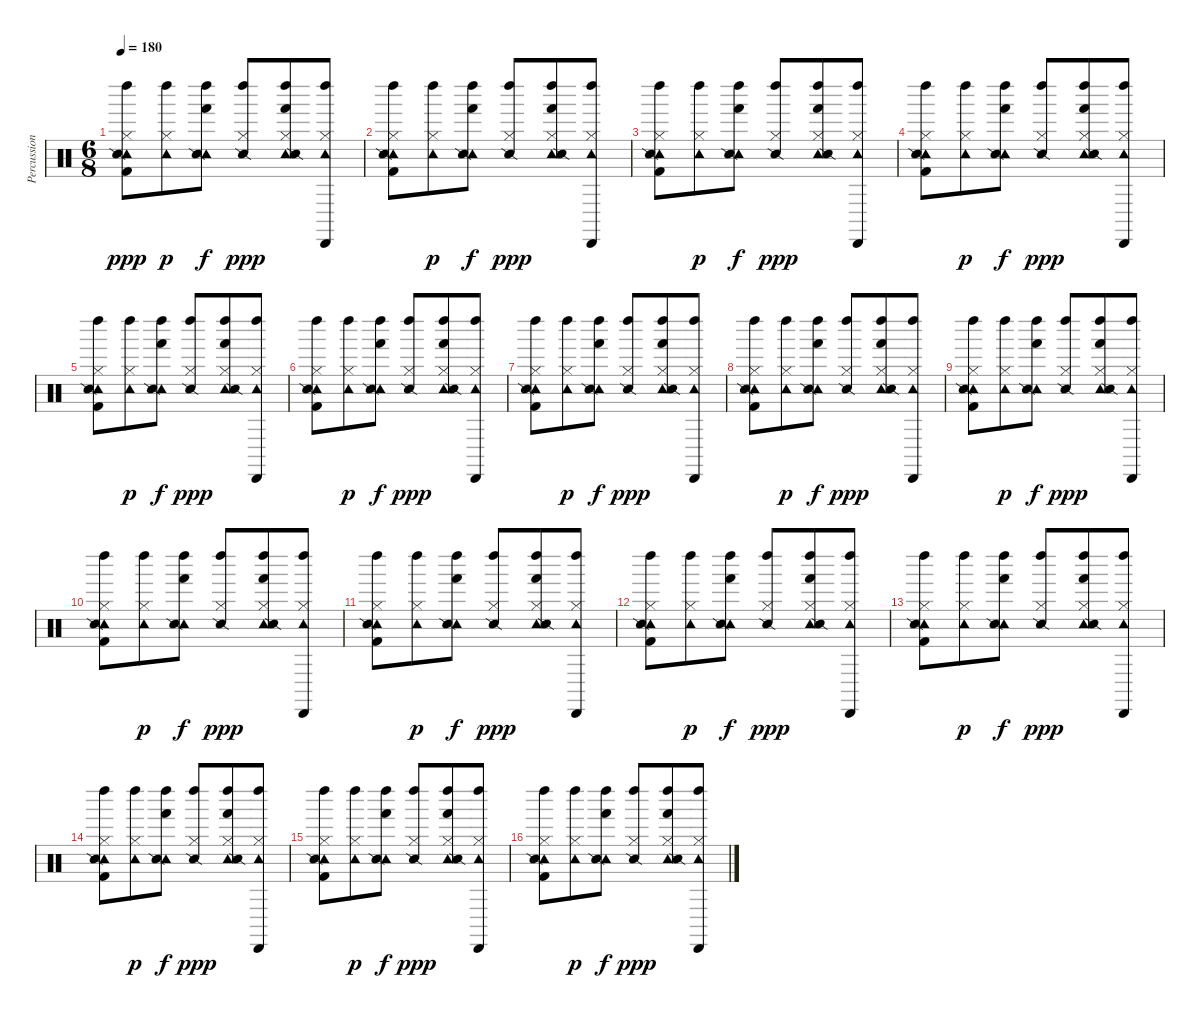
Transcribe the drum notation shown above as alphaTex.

\track ("Percussion" "Percussion") {instrument percussion}
\staff {score}
\articulation defaults
\ts (6 8)
\tempo 180
\clef neutral
\ks c
("Kick (hit) 2" "Hi-Hat (closed)" "Tambourine (hit)" "Snare (side stick) 2" "Left Maraca (hit)").8{dy ppp} ("Hi-Hat (closed)" "Tambourine (hit)" "Left Maraca (hit)").8{dy p} ("Hand (hit)" "Tambourine (hit)" "Snare (side stick) 2" "Left Maraca (hit)").8{dy f} ("Hi-Hat (closed)" "Snare (side stick) 2" "Left Maraca (hit)").8{dy ppp} ("Hand (hit)" "Hi-Hat (closed)" "Tambourine (hit)" "Snare (side stick) 2" "Left Maraca (hit)").8 ("Hi-Hat (closed)" "Tambourine (hit)" "Cabasa (hit)" "Left Maraca (hit)").8 |
("Kick (hit) 2" "Hi-Hat (closed)" "Tambourine (hit)" "Snare (side stick) 2" "Left Maraca (hit)").8 ("Hi-Hat (closed)" "Tambourine (hit)" "Left Maraca (hit)").8{dy p} ("Hand (hit)" "Tambourine (hit)" "Snare (side stick) 2" "Left Maraca (hit)").8{dy f} ("Hi-Hat (closed)" "Snare (side stick) 2" "Left Maraca (hit)").8{dy ppp} ("Hand (hit)" "Hi-Hat (closed)" "Tambourine (hit)" "Snare (side stick) 2" "Left Maraca (hit)").8 ("Hi-Hat (closed)" "Tambourine (hit)" "Cabasa (hit)" "Left Maraca (hit)").8 |
("Kick (hit) 2" "Hi-Hat (closed)" "Tambourine (hit)" "Snare (side stick) 2" "Left Maraca (hit)").8 ("Hi-Hat (closed)" "Tambourine (hit)" "Left Maraca (hit)").8{dy p} ("Hand (hit)" "Tambourine (hit)" "Snare (side stick) 2" "Left Maraca (hit)").8{dy f} ("Hi-Hat (closed)" "Snare (side stick) 2" "Left Maraca (hit)").8{dy ppp} ("Hand (hit)" "Hi-Hat (closed)" "Tambourine (hit)" "Snare (side stick) 2" "Left Maraca (hit)").8 ("Hi-Hat (closed)" "Tambourine (hit)" "Cabasa (hit)" "Left Maraca (hit)").8 |
("Kick (hit) 2" "Hi-Hat (closed)" "Tambourine (hit)" "Snare (side stick) 2" "Left Maraca (hit)").8 ("Hi-Hat (closed)" "Tambourine (hit)" "Left Maraca (hit)").8{dy p} ("Hand (hit)" "Tambourine (hit)" "Snare (side stick) 2" "Left Maraca (hit)").8{dy f} ("Hi-Hat (closed)" "Snare (side stick) 2" "Left Maraca (hit)").8{dy ppp} ("Hand (hit)" "Hi-Hat (closed)" "Tambourine (hit)" "Snare (side stick) 2" "Left Maraca (hit)").8 ("Hi-Hat (closed)" "Tambourine (hit)" "Cabasa (hit)" "Left Maraca (hit)").8 |
("Kick (hit) 2" "Hi-Hat (closed)" "Tambourine (hit)" "Snare (side stick) 2" "Left Maraca (hit)").8 ("Hi-Hat (closed)" "Tambourine (hit)" "Left Maraca (hit)").8{dy p} ("Hand (hit)" "Tambourine (hit)" "Snare (side stick) 2" "Left Maraca (hit)").8{dy f} ("Hi-Hat (closed)" "Snare (side stick) 2" "Left Maraca (hit)").8{dy ppp} ("Hand (hit)" "Hi-Hat (closed)" "Tambourine (hit)" "Snare (side stick) 2" "Left Maraca (hit)").8 ("Hi-Hat (closed)" "Tambourine (hit)" "Cabasa (hit)" "Left Maraca (hit)").8 |
("Kick (hit) 2" "Hi-Hat (closed)" "Tambourine (hit)" "Snare (side stick) 2" "Left Maraca (hit)").8 ("Hi-Hat (closed)" "Tambourine (hit)" "Left Maraca (hit)").8{dy p} ("Hand (hit)" "Tambourine (hit)" "Snare (side stick) 2" "Left Maraca (hit)").8{dy f} ("Hi-Hat (closed)" "Snare (side stick) 2" "Left Maraca (hit)").8{dy ppp} ("Hand (hit)" "Hi-Hat (closed)" "Tambourine (hit)" "Snare (side stick) 2" "Left Maraca (hit)").8 ("Hi-Hat (closed)" "Tambourine (hit)" "Cabasa (hit)" "Left Maraca (hit)").8 |
("Kick (hit) 2" "Hi-Hat (closed)" "Tambourine (hit)" "Snare (side stick) 2" "Left Maraca (hit)").8 ("Hi-Hat (closed)" "Tambourine (hit)" "Left Maraca (hit)").8{dy p} ("Hand (hit)" "Tambourine (hit)" "Snare (side stick) 2" "Left Maraca (hit)").8{dy f} ("Hi-Hat (closed)" "Snare (side stick) 2" "Left Maraca (hit)").8{dy ppp} ("Hand (hit)" "Hi-Hat (closed)" "Tambourine (hit)" "Snare (side stick) 2" "Left Maraca (hit)").8 ("Hi-Hat (closed)" "Tambourine (hit)" "Cabasa (hit)" "Left Maraca (hit)").8 |
("Kick (hit) 2" "Hi-Hat (closed)" "Tambourine (hit)" "Snare (side stick) 2" "Left Maraca (hit)").8 ("Hi-Hat (closed)" "Tambourine (hit)" "Left Maraca (hit)").8{dy p} ("Hand (hit)" "Tambourine (hit)" "Snare (side stick) 2" "Left Maraca (hit)").8{dy f} ("Hi-Hat (closed)" "Snare (side stick) 2" "Left Maraca (hit)").8{dy ppp} ("Hand (hit)" "Hi-Hat (closed)" "Tambourine (hit)" "Snare (side stick) 2" "Left Maraca (hit)").8 ("Hi-Hat (closed)" "Tambourine (hit)" "Cabasa (hit)" "Left Maraca (hit)").8 |
("Kick (hit) 2" "Hi-Hat (closed)" "Tambourine (hit)" "Snare (side stick) 2" "Left Maraca (hit)").8 ("Hi-Hat (closed)" "Tambourine (hit)" "Left Maraca (hit)").8{dy p} ("Hand (hit)" "Tambourine (hit)" "Snare (side stick) 2" "Left Maraca (hit)").8{dy f} ("Hi-Hat (closed)" "Snare (side stick) 2" "Left Maraca (hit)").8{dy ppp} ("Hand (hit)" "Hi-Hat (closed)" "Tambourine (hit)" "Snare (side stick) 2" "Left Maraca (hit)").8 ("Hi-Hat (closed)" "Tambourine (hit)" "Cabasa (hit)" "Left Maraca (hit)").8 |
("Kick (hit) 2" "Hi-Hat (closed)" "Tambourine (hit)" "Snare (side stick) 2" "Left Maraca (hit)").8 ("Hi-Hat (closed)" "Tambourine (hit)" "Left Maraca (hit)").8{dy p} ("Hand (hit)" "Tambourine (hit)" "Snare (side stick) 2" "Left Maraca (hit)").8{dy f} ("Hi-Hat (closed)" "Snare (side stick) 2" "Left Maraca (hit)").8{dy ppp} ("Hand (hit)" "Hi-Hat (closed)" "Tambourine (hit)" "Snare (side stick) 2" "Left Maraca (hit)").8 ("Hi-Hat (closed)" "Tambourine (hit)" "Cabasa (hit)" "Left Maraca (hit)").8 |
("Kick (hit) 2" "Hi-Hat (closed)" "Tambourine (hit)" "Snare (side stick) 2" "Left Maraca (hit)").8 ("Hi-Hat (closed)" "Tambourine (hit)" "Left Maraca (hit)").8{dy p} ("Hand (hit)" "Tambourine (hit)" "Snare (side stick) 2" "Left Maraca (hit)").8{dy f} ("Hi-Hat (closed)" "Snare (side stick) 2" "Left Maraca (hit)").8{dy ppp} ("Hand (hit)" "Hi-Hat (closed)" "Tambourine (hit)" "Snare (side stick) 2" "Left Maraca (hit)").8 ("Hi-Hat (closed)" "Tambourine (hit)" "Cabasa (hit)" "Left Maraca (hit)").8 |
("Kick (hit) 2" "Hi-Hat (closed)" "Tambourine (hit)" "Snare (side stick) 2" "Left Maraca (hit)").8 ("Hi-Hat (closed)" "Tambourine (hit)" "Left Maraca (hit)").8{dy p} ("Hand (hit)" "Tambourine (hit)" "Snare (side stick) 2" "Left Maraca (hit)").8{dy f} ("Hi-Hat (closed)" "Snare (side stick) 2" "Left Maraca (hit)").8{dy ppp} ("Hand (hit)" "Hi-Hat (closed)" "Tambourine (hit)" "Snare (side stick) 2" "Left Maraca (hit)").8 ("Hi-Hat (closed)" "Tambourine (hit)" "Cabasa (hit)" "Left Maraca (hit)").8 |
("Kick (hit) 2" "Hi-Hat (closed)" "Tambourine (hit)" "Snare (side stick) 2" "Left Maraca (hit)").8 ("Hi-Hat (closed)" "Tambourine (hit)" "Left Maraca (hit)").8{dy p} ("Hand (hit)" "Tambourine (hit)" "Snare (side stick) 2" "Left Maraca (hit)").8{dy f} ("Hi-Hat (closed)" "Snare (side stick) 2" "Left Maraca (hit)").8{dy ppp} ("Hand (hit)" "Hi-Hat (closed)" "Tambourine (hit)" "Snare (side stick) 2" "Left Maraca (hit)").8 ("Hi-Hat (closed)" "Tambourine (hit)" "Cabasa (hit)" "Left Maraca (hit)").8 |
("Kick (hit) 2" "Hi-Hat (closed)" "Tambourine (hit)" "Snare (side stick) 2" "Left Maraca (hit)").8 ("Hi-Hat (closed)" "Tambourine (hit)" "Left Maraca (hit)").8{dy p} ("Hand (hit)" "Tambourine (hit)" "Snare (side stick) 2" "Left Maraca (hit)").8{dy f} ("Hi-Hat (closed)" "Snare (side stick) 2" "Left Maraca (hit)").8{dy ppp} ("Hand (hit)" "Hi-Hat (closed)" "Tambourine (hit)" "Snare (side stick) 2" "Left Maraca (hit)").8 ("Hi-Hat (closed)" "Tambourine (hit)" "Cabasa (hit)" "Left Maraca (hit)").8 |
("Kick (hit) 2" "Hi-Hat (closed)" "Tambourine (hit)" "Snare (side stick) 2" "Left Maraca (hit)").8 ("Hi-Hat (closed)" "Tambourine (hit)" "Left Maraca (hit)").8{dy p} ("Hand (hit)" "Tambourine (hit)" "Snare (side stick) 2" "Left Maraca (hit)").8{dy f} ("Hi-Hat (closed)" "Snare (side stick) 2" "Left Maraca (hit)").8{dy ppp} ("Hand (hit)" "Hi-Hat (closed)" "Tambourine (hit)" "Snare (side stick) 2" "Left Maraca (hit)").8 ("Hi-Hat (closed)" "Tambourine (hit)" "Cabasa (hit)" "Left Maraca (hit)").8 |
("Kick (hit) 2" "Hi-Hat (closed)" "Tambourine (hit)" "Snare (side stick) 2" "Left Maraca (hit)").8 ("Hi-Hat (closed)" "Tambourine (hit)" "Left Maraca (hit)").8{dy p} ("Hand (hit)" "Tambourine (hit)" "Snare (side stick) 2" "Left Maraca (hit)").8{dy f} ("Hi-Hat (closed)" "Snare (side stick) 2" "Left Maraca (hit)").8{dy ppp} ("Hand (hit)" "Hi-Hat (closed)" "Tambourine (hit)" "Snare (side stick) 2" "Left Maraca (hit)").8 ("Hi-Hat (closed)" "Tambourine (hit)" "Cabasa (hit)" "Left Maraca (hit)").8
